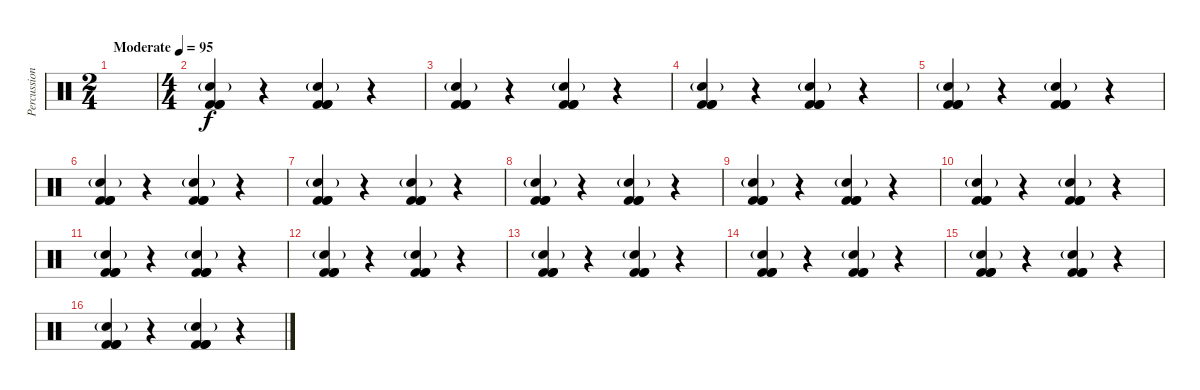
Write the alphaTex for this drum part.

\track ("Percussion" "Percussion") {instrument percussion}
\staff {score}
\articulation defaults
\ts (2 4)
\tempo (95 "Moderate")
\clef neutral
\ks c
|
\ts (4 4)
("Hand Clap (hit)"{g} "Kick (hit) 2" "Kick (hit) 2" "Kick (hit) 2").4{bd 120} r.4 ("Hand Clap (hit)"{g} "Kick (hit) 2" "Kick (hit) 2" "Kick (hit) 2").4{bd 120} r.4 |
("Hand Clap (hit)"{g} "Kick (hit) 2" "Kick (hit) 2" "Kick (hit) 2").4{bd 120} r.4 ("Hand Clap (hit)"{g} "Kick (hit) 2" "Kick (hit) 2" "Kick (hit) 2").4{bd 120} r.4 |
("Hand Clap (hit)"{g} "Kick (hit) 2" "Kick (hit) 2" "Kick (hit) 2").4{bd 120} r.4 ("Hand Clap (hit)"{g} "Kick (hit) 2" "Kick (hit) 2" "Kick (hit) 2").4{bd 120} r.4 |
("Hand Clap (hit)"{g} "Kick (hit) 2" "Kick (hit) 2" "Kick (hit) 2").4{bd 120} r.4 ("Hand Clap (hit)"{g} "Kick (hit) 2" "Kick (hit) 2" "Kick (hit) 2").4{bd 120} r.4 |
("Hand Clap (hit)"{g} "Kick (hit) 2" "Kick (hit) 2" "Kick (hit) 2").4{bd 120} r.4 ("Hand Clap (hit)"{g} "Kick (hit) 2" "Kick (hit) 2" "Kick (hit) 2").4{bd 120} r.4 |
("Hand Clap (hit)"{g} "Kick (hit) 2" "Kick (hit) 2" "Kick (hit) 2").4{bd 120} r.4 ("Hand Clap (hit)"{g} "Kick (hit) 2" "Kick (hit) 2" "Kick (hit) 2").4{bd 120} r.4 |
("Hand Clap (hit)"{g} "Kick (hit) 2" "Kick (hit) 2" "Kick (hit) 2").4{bd 120} r.4 ("Hand Clap (hit)"{g} "Kick (hit) 2" "Kick (hit) 2" "Kick (hit) 2").4{bd 120} r.4 |
("Hand Clap (hit)"{g} "Kick (hit) 2" "Kick (hit) 2" "Kick (hit) 2").4{bd 120} r.4 ("Hand Clap (hit)"{g} "Kick (hit) 2" "Kick (hit) 2" "Kick (hit) 2").4{bd 120} r.4 |
("Hand Clap (hit)"{g} "Kick (hit) 2" "Kick (hit) 2" "Kick (hit) 2").4{bd 120} r.4 ("Hand Clap (hit)"{g} "Kick (hit) 2" "Kick (hit) 2" "Kick (hit) 2").4{bd 120} r.4 |
("Hand Clap (hit)"{g} "Kick (hit) 2" "Kick (hit) 2" "Kick (hit) 2").4{bd 120} r.4 ("Hand Clap (hit)"{g} "Kick (hit) 2" "Kick (hit) 2" "Kick (hit) 2").4{bd 120} r.4 |
("Hand Clap (hit)"{g} "Kick (hit) 2" "Kick (hit) 2" "Kick (hit) 2").4{bd 120} r.4 ("Hand Clap (hit)"{g} "Kick (hit) 2" "Kick (hit) 2" "Kick (hit) 2").4{bd 120} r.4 |
("Hand Clap (hit)"{g} "Kick (hit) 2" "Kick (hit) 2" "Kick (hit) 2").4{bd 120} r.4 ("Hand Clap (hit)"{g} "Kick (hit) 2" "Kick (hit) 2" "Kick (hit) 2").4{bd 120} r.4 |
("Hand Clap (hit)"{g} "Kick (hit) 2" "Kick (hit) 2" "Kick (hit) 2").4{bd 120} r.4 ("Hand Clap (hit)"{g} "Kick (hit) 2" "Kick (hit) 2" "Kick (hit) 2").4{bd 120} r.4 |
("Hand Clap (hit)"{g} "Kick (hit) 2" "Kick (hit) 2" "Kick (hit) 2").4{bd 120} r.4 ("Hand Clap (hit)"{g} "Kick (hit) 2" "Kick (hit) 2" "Kick (hit) 2").4{bd 120} r.4 |
("Hand Clap (hit)"{g} "Kick (hit) 2" "Kick (hit) 2" "Kick (hit) 2").4{bd 120} r.4 ("Hand Clap (hit)"{g} "Kick (hit) 2" "Kick (hit) 2" "Kick (hit) 2").4{bd 120} r.4
